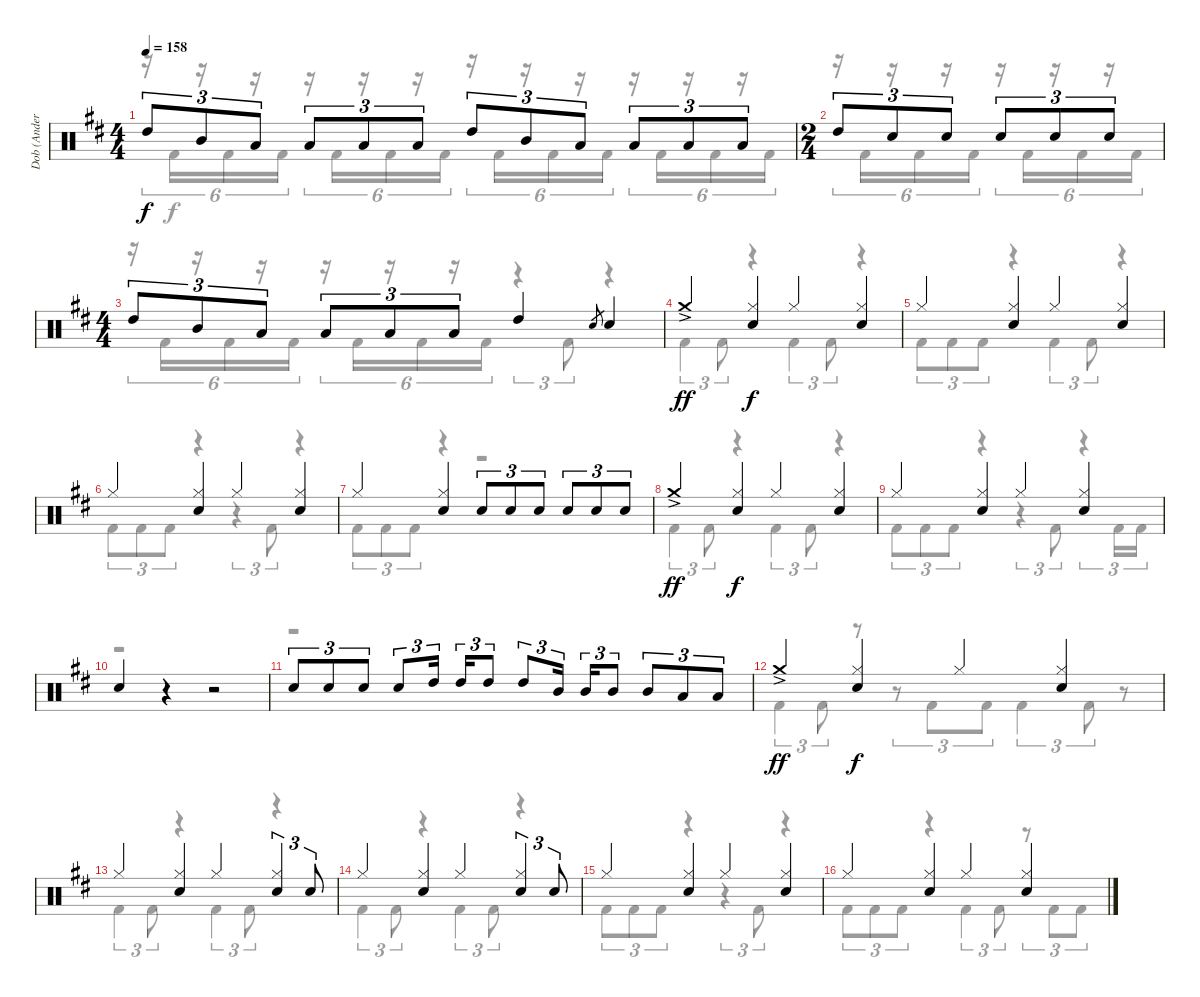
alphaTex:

\track ("Dob (Anders Johansson)" "Dob (Ander") {instrument percussion}
\staff {score}
\articulation defaults
\voice
\ts (4 4)
\tempo 158
\clef neutral
\ks d "High Tom (hit)".8{tu (3 2) dy f} "Mid Tom (hit)".8{tu (3 2)} "Low Tom (hit)".8{tu (3 2)} "Low Tom (hit)".8{tu (3 2)} "Low Tom (hit)".8{tu (3 2)} "Low Tom (hit)".8{tu (3 2)} "High Tom (hit)".8{tu (3 2)} "Mid Tom (hit)".8{tu (3 2)} "Low Tom (hit)".8{tu (3 2)} "Low Tom (hit)".8{tu (3 2)} "Low Tom (hit)".8{tu (3 2)} "Low Tom (hit)".8{tu (3 2)}
|
\ts (2 4)
"High Tom (hit)".8{tu (3 2)} "Electric Snare (hit)".8{tu (3 2)} "Electric Snare (hit)".8{tu (3 2)} "Electric Snare (hit)".8{tu (3 2)} "Electric Snare (hit)".8{tu (3 2)} "Electric Snare (hit)".8{tu (3 2)} |
\ts (4 4)
"High Tom (hit)".8{tu (3 2)} "Mid Tom (hit)".8{tu (3 2)} "Low Tom (hit)".8{tu (3 2)} "Low Tom (hit)".8{tu (3 2)} "Low Tom (hit)".8{tu (3 2)} "Low Tom (hit)".8{tu (3 2)} "High Tom (hit)".4 "Electric Snare (hit)".8{gr} "Electric Snare (hit)".4 |
"Crash medium (hit)"{ac}.4{dy ff} ("Hi-Hat (closed)" "Electric Snare (hit)").4{dy f} "Hi-Hat (closed)".4 ("Hi-Hat (closed)" "Electric Snare (hit)").4 |
"Hi-Hat (closed)".4 ("Hi-Hat (closed)" "Electric Snare (hit)").4 "Hi-Hat (closed)".4 ("Hi-Hat (closed)" "Electric Snare (hit)").4 |
"Hi-Hat (closed)".4 ("Hi-Hat (closed)" "Electric Snare (hit)").4 "Hi-Hat (closed)".4 ("Hi-Hat (closed)" "Electric Snare (hit)").4 |
"Hi-Hat (closed)".4 ("Hi-Hat (closed)" "Electric Snare (hit)").4 "Electric Snare (hit)".8{tu (3 2)} "Electric Snare (hit)".8{tu (3 2)} "Electric Snare (hit)".8{tu (3 2)} "Electric Snare (hit)".8{tu (3 2)} "Electric Snare (hit)".8{tu (3 2)} "Electric Snare (hit)".8{tu (3 2)} |
"Crash medium (hit)"{ac}.4{dy ff} ("Hi-Hat (closed)" "Electric Snare (hit)").4{dy f} "Hi-Hat (closed)".4 ("Hi-Hat (closed)" "Electric Snare (hit)").4 |
"Hi-Hat (closed)".4 ("Hi-Hat (closed)" "Electric Snare (hit)").4 "Hi-Hat (closed)".4 ("Hi-Hat (closed)" "Electric Snare (hit)").4 |
"Electric Snare (hit)".4 r.4 r.2 |
"Electric Snare (hit)".8{tu (3 2)} "Electric Snare (hit)".8{tu (3 2)} "Electric Snare (hit)".8{tu (3 2)} "Electric Snare (hit)".8{tu (3 2)} "High Tom (hit)".16{tu (3 2)} "High Tom (hit)".16{tu (3 2)} "High Tom (hit)".8{tu (3 2)} "High Tom (hit)".8{tu (3 2)} "Mid Tom (hit)".16{tu (3 2)} "Mid Tom (hit)".16{tu (3 2)} "Mid Tom (hit)".8{tu (3 2)} "Mid Tom (hit)".8{tu (3 2)} "Low Tom (hit)".8{tu (3 2)} "Low Tom (hit)".8{tu (3 2)} |
"Crash medium (hit)"{ac}.4{dy ff} ("Hi-Hat (closed)" "Electric Snare (hit)").4{dy f} "Hi-Hat (closed)".4 ("Hi-Hat (closed)" "Electric Snare (hit)").4 |
"Hi-Hat (closed)".4 ("Hi-Hat (closed)" "Electric Snare (hit)").4 "Hi-Hat (closed)".4 ("Hi-Hat (closed)" "Electric Snare (hit)").4{tu (3 2)} "Electric Snare (hit)".8{tu (3 2)} |
"Hi-Hat (closed)".4 ("Hi-Hat (closed)" "Electric Snare (hit)").4 "Hi-Hat (closed)".4 ("Hi-Hat (closed)" "Electric Snare (hit)").4{tu (3 2)} "Electric Snare (hit)".8{tu (3 2)} |
"Hi-Hat (closed)".4 ("Hi-Hat (closed)" "Electric Snare (hit)").4 "Hi-Hat (closed)".4 ("Hi-Hat (closed)" "Electric Snare (hit)").4 |
"Hi-Hat (closed)".4 ("Hi-Hat (closed)" "Electric Snare (hit)").4 "Hi-Hat (closed)".4 ("Hi-Hat (closed)" "Electric Snare (hit)").4
\voice
\clef neutral
\ottava regular
\simile none
\ks d
r.16{tu (6 4) dy f} "Kick (hit) 2".16{tu (6 4)} r.16{tu (6 4)} "Kick (hit) 2".16{tu (6 4)} r.16{tu (6 4)} "Kick (hit) 2".16{tu (6 4)} r.16{tu (6 4)} "Kick (hit) 2".16{tu (6 4)} r.16{tu (6 4)} "Kick (hit) 2".16{tu (6 4)} r.16{tu (6 4)} "Kick (hit) 2".16{tu (6 4)} r.16{tu (6 4)} "Kick (hit) 2".16{tu (6 4)} r.16{tu (6 4)} "Kick (hit) 2".16{tu (6 4)} r.16{tu (6 4)} "Kick (hit) 2".16{tu (6 4)} r.16{tu (6 4)} "Kick (hit) 2".16{tu (6 4)} r.16{tu (6 4)} "Kick (hit) 2".16{tu (6 4)} r.16{tu (6 4)} "Kick (hit) 2".16{tu (6 4)} |
r.16{tu (6 4)} "Kick (hit) 2".16{tu (6 4)} r.16{tu (6 4)} "Kick (hit) 2".16{tu (6 4)} r.16{tu (6 4)} "Kick (hit) 2".16{tu (6 4)} r.16{tu (6 4)} "Kick (hit) 2".16{tu (6 4)} r.16{tu (6 4)} "Kick (hit) 2".16{tu (6 4)} r.16{tu (6 4)} "Kick (hit) 2".16{tu (6 4)} |
r.16{tu (6 4)} "Kick (hit) 2".16{tu (6 4)} r.16{tu (6 4)} "Kick (hit) 2".16{tu (6 4)} r.16{tu (6 4)} "Kick (hit) 2".16{tu (6 4)} r.16{tu (6 4)} "Kick (hit) 2".16{tu (6 4)} r.16{tu (6 4)} "Kick (hit) 2".16{tu (6 4)} r.16{tu (6 4)} "Kick (hit) 2".16{tu (6 4)} r.4{tu (3 2)} "Kick (hit) 2".8{tu (3 2)} r.4 |
"Kick (hit) 2".4{tu (3 2)} "Kick (hit) 2".8{tu (3 2)} r.4 "Kick (hit) 2".4{tu (3 2)} "Kick (hit) 2".8{tu (3 2)} r.4 |
"Kick (hit) 2".8{tu (3 2)} "Kick (hit) 2".8{tu (3 2)} "Kick (hit) 2".8{tu (3 2)} r.4 "Kick (hit) 2".4{tu (3 2)} "Kick (hit) 2".8{tu (3 2)} r.4 |
"Kick (hit) 2".8{tu (3 2)} "Kick (hit) 2".8{tu (3 2)} "Kick (hit) 2".8{tu (3 2)} r.4 r.4{tu (3 2)} "Kick (hit) 2".8{tu (3 2)} r.4 |
"Kick (hit) 2".8{tu (3 2)} "Kick (hit) 2".8{tu (3 2)} "Kick (hit) 2".8{tu (3 2)} r.4 r.2 |
"Kick (hit) 2".4{tu (3 2)} "Kick (hit) 2".8{tu (3 2)} r.4 "Kick (hit) 2".4{tu (3 2)} "Kick (hit) 2".8{tu (3 2)} r.4 |
"Kick (hit) 2".8{tu (3 2)} "Kick (hit) 2".8{tu (3 2)} "Kick (hit) 2".8{tu (3 2)} r.4 r.4{tu (3 2)} "Kick (hit) 2".8{tu (3 2)} r.4{tu (3 2)} "Kick (hit) 2".16{tu (3 2)} "Kick (hit) 2".16{tu (3 2)} |
r.1 |
r.1 |
"Kick (hit) 2".4{tu (3 2)} "Kick (hit) 2".8{tu (3 2)} r.8 r.8{tu (3 2)} "Kick (hit) 2".8{tu (3 2)} "Kick (hit) 2".8{tu (3 2)} "Kick (hit) 2".4{tu (3 2)} "Kick (hit) 2".8{tu (3 2)} r.8 |
"Kick (hit) 2".4{tu (3 2)} "Kick (hit) 2".8{tu (3 2)} r.4 "Kick (hit) 2".4{tu (3 2)} "Kick (hit) 2".8{tu (3 2)} r.4 |
"Kick (hit) 2".4{tu (3 2)} "Kick (hit) 2".8{tu (3 2)} r.4 "Kick (hit) 2".4{tu (3 2)} "Kick (hit) 2".8{tu (3 2)} r.4 |
"Kick (hit) 2".8{tu (3 2)} "Kick (hit) 2".8{tu (3 2)} "Kick (hit) 2".8{tu (3 2)} r.4 r.4{tu (3 2)} "Kick (hit) 2".8{tu (3 2)} r.4 |
"Kick (hit) 2".8{tu (3 2)} "Kick (hit) 2".8{tu (3 2)} "Kick (hit) 2".8{tu (3 2)} r.4 "Kick (hit) 2".4{tu (3 2)} "Kick (hit) 2".8{tu (3 2)} r.8{tu (3 2)} "Kick (hit) 2".8{tu (3 2)} "Kick (hit) 2".8{tu (3 2)}
